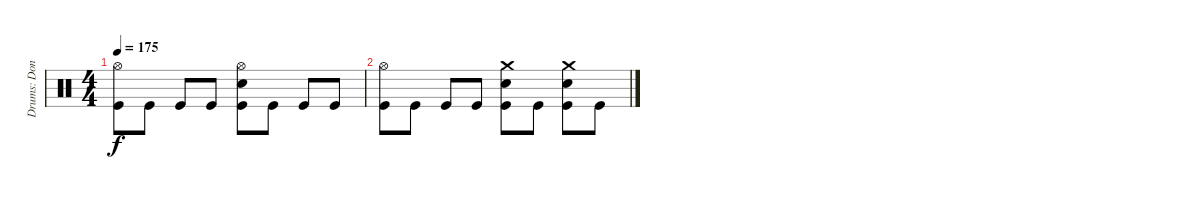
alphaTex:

\track ("Drums: Donald Tardy" "Drums: Don") {instrument percussion}
\staff {score}
\articulation defaults
\ts (4 4)
\tempo 175
\clef neutral
\ks c
("Hi-Hat (open)" "Kick (hit)").8{dy f} "Kick (hit)".8 "Kick (hit)".8 "Kick (hit)".8 ("Hi-Hat (open)" "Snare (hit) 2" "Kick (hit)").8 "Kick (hit)".8 "Kick (hit)".8 "Kick (hit)".8 |
("Hi-Hat (open)" "Kick (hit)").8 "Kick (hit)".8 "Kick (hit)".8 "Kick (hit)".8 ("Crash medium (hit)" "Snare (hit) 2" "Kick (hit)").8 "Kick (hit)".8 ("Crash medium (hit)" "Snare (hit) 2" "Kick (hit)").8 "Kick (hit)".8
